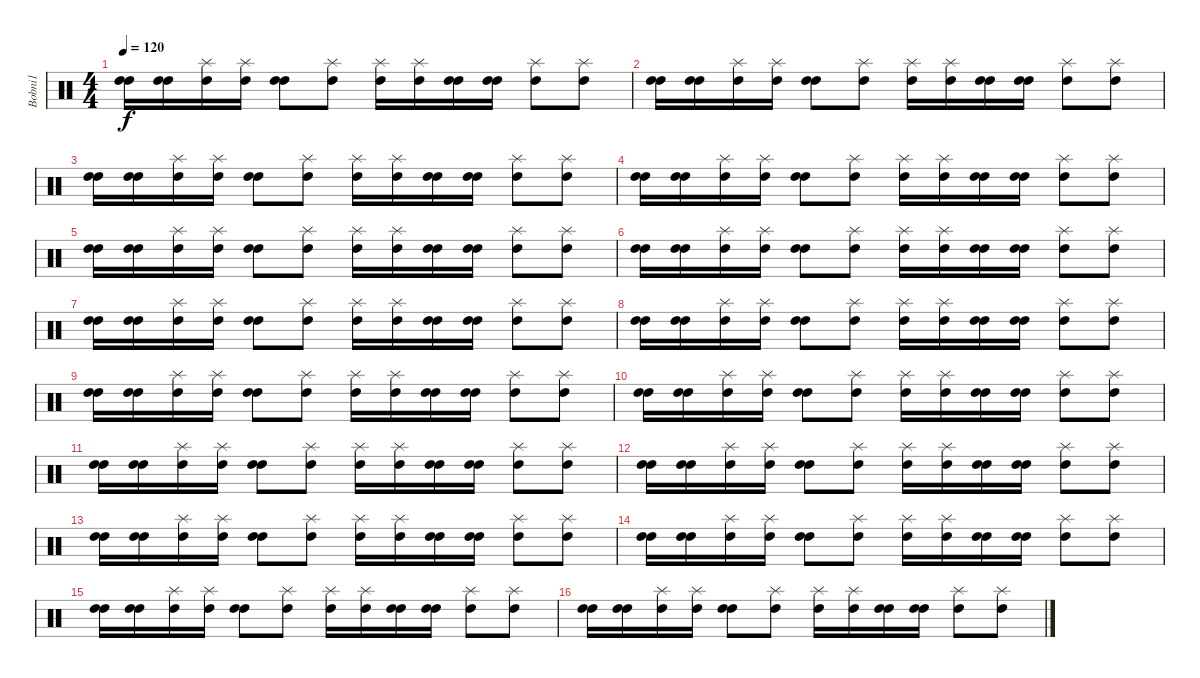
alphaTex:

\track ("Bobni1" "Bobni1") {instrument percussion}
\staff {score}
\articulation defaults
\ts (4 4)
\tempo 120
\clef neutral
\ks c
("High Tom (hit)" "High Tom (hit)").16{dy f} ("High Tom (hit)" "High Tom (hit)").16 ("High Tom (hit)" "Splash (hit)").16 ("High Tom (hit)" "Splash (hit)").16 ("High Tom (hit)" "High Tom (hit)").8 ("High Tom (hit)" "Splash (hit)").8 ("High Tom (hit)" "Splash (hit)").16 ("Splash (hit)" "High Tom (hit)").16 ("High Tom (hit)" "High Tom (hit)").16 ("High Tom (hit)" "High Tom (hit)").16 ("High Tom (hit)" "Splash (hit)").8 ("High Tom (hit)" "Splash (hit)").8 |
("High Tom (hit)" "High Tom (hit)").16 ("High Tom (hit)" "High Tom (hit)").16 ("High Tom (hit)" "Splash (hit)").16 ("High Tom (hit)" "Splash (hit)").16 ("High Tom (hit)" "High Tom (hit)").8 ("High Tom (hit)" "Splash (hit)").8 ("High Tom (hit)" "Splash (hit)").16 ("Splash (hit)" "High Tom (hit)").16 ("High Tom (hit)" "High Tom (hit)").16 ("High Tom (hit)" "High Tom (hit)").16 ("High Tom (hit)" "Splash (hit)").8 ("High Tom (hit)" "Splash (hit)").8 |
("High Tom (hit)" "High Tom (hit)").16 ("High Tom (hit)" "High Tom (hit)").16 ("High Tom (hit)" "Splash (hit)").16 ("High Tom (hit)" "Splash (hit)").16 ("High Tom (hit)" "High Tom (hit)").8 ("High Tom (hit)" "Splash (hit)").8 ("High Tom (hit)" "Splash (hit)").16 ("Splash (hit)" "High Tom (hit)").16 ("High Tom (hit)" "High Tom (hit)").16 ("High Tom (hit)" "High Tom (hit)").16 ("High Tom (hit)" "Splash (hit)").8 ("High Tom (hit)" "Splash (hit)").8 |
("High Tom (hit)" "High Tom (hit)").16 ("High Tom (hit)" "High Tom (hit)").16 ("High Tom (hit)" "Splash (hit)").16 ("High Tom (hit)" "Splash (hit)").16 ("High Tom (hit)" "High Tom (hit)").8 ("High Tom (hit)" "Splash (hit)").8 ("High Tom (hit)" "Splash (hit)").16 ("Splash (hit)" "High Tom (hit)").16 ("High Tom (hit)" "High Tom (hit)").16 ("High Tom (hit)" "High Tom (hit)").16 ("High Tom (hit)" "Splash (hit)").8 ("High Tom (hit)" "Splash (hit)").8 |
("High Tom (hit)" "High Tom (hit)").16 ("High Tom (hit)" "High Tom (hit)").16 ("High Tom (hit)" "Splash (hit)").16 ("High Tom (hit)" "Splash (hit)").16 ("High Tom (hit)" "High Tom (hit)").8 ("High Tom (hit)" "Splash (hit)").8 ("High Tom (hit)" "Splash (hit)").16 ("Splash (hit)" "High Tom (hit)").16 ("High Tom (hit)" "High Tom (hit)").16 ("High Tom (hit)" "High Tom (hit)").16 ("High Tom (hit)" "Splash (hit)").8 ("High Tom (hit)" "Splash (hit)").8 |
("High Tom (hit)" "High Tom (hit)").16 ("High Tom (hit)" "High Tom (hit)").16 ("High Tom (hit)" "Splash (hit)").16 ("High Tom (hit)" "Splash (hit)").16 ("High Tom (hit)" "High Tom (hit)").8 ("High Tom (hit)" "Splash (hit)").8 ("High Tom (hit)" "Splash (hit)").16 ("Splash (hit)" "High Tom (hit)").16 ("High Tom (hit)" "High Tom (hit)").16 ("High Tom (hit)" "High Tom (hit)").16 ("High Tom (hit)" "Splash (hit)").8 ("High Tom (hit)" "Splash (hit)").8 |
("High Tom (hit)" "High Tom (hit)").16 ("High Tom (hit)" "High Tom (hit)").16 ("High Tom (hit)" "Splash (hit)").16 ("High Tom (hit)" "Splash (hit)").16 ("High Tom (hit)" "High Tom (hit)").8 ("High Tom (hit)" "Splash (hit)").8 ("High Tom (hit)" "Splash (hit)").16 ("Splash (hit)" "High Tom (hit)").16 ("High Tom (hit)" "High Tom (hit)").16 ("High Tom (hit)" "High Tom (hit)").16 ("High Tom (hit)" "Splash (hit)").8 ("High Tom (hit)" "Splash (hit)").8 |
("High Tom (hit)" "High Tom (hit)").16 ("High Tom (hit)" "High Tom (hit)").16 ("High Tom (hit)" "Splash (hit)").16 ("High Tom (hit)" "Splash (hit)").16 ("High Tom (hit)" "High Tom (hit)").8 ("High Tom (hit)" "Splash (hit)").8 ("High Tom (hit)" "Splash (hit)").16 ("Splash (hit)" "High Tom (hit)").16 ("High Tom (hit)" "High Tom (hit)").16 ("High Tom (hit)" "High Tom (hit)").16 ("High Tom (hit)" "Splash (hit)").8 ("High Tom (hit)" "Splash (hit)").8 |
("High Tom (hit)" "High Tom (hit)").16 ("High Tom (hit)" "High Tom (hit)").16 ("High Tom (hit)" "Splash (hit)").16 ("High Tom (hit)" "Splash (hit)").16 ("High Tom (hit)" "High Tom (hit)").8 ("High Tom (hit)" "Splash (hit)").8 ("High Tom (hit)" "Splash (hit)").16 ("Splash (hit)" "High Tom (hit)").16 ("High Tom (hit)" "High Tom (hit)").16 ("High Tom (hit)" "High Tom (hit)").16 ("High Tom (hit)" "Splash (hit)").8 ("High Tom (hit)" "Splash (hit)").8 |
("High Tom (hit)" "High Tom (hit)").16 ("High Tom (hit)" "High Tom (hit)").16 ("High Tom (hit)" "Splash (hit)").16 ("High Tom (hit)" "Splash (hit)").16 ("High Tom (hit)" "High Tom (hit)").8 ("High Tom (hit)" "Splash (hit)").8 ("High Tom (hit)" "Splash (hit)").16 ("Splash (hit)" "High Tom (hit)").16 ("High Tom (hit)" "High Tom (hit)").16 ("High Tom (hit)" "High Tom (hit)").16 ("High Tom (hit)" "Splash (hit)").8 ("High Tom (hit)" "Splash (hit)").8 |
("High Tom (hit)" "High Tom (hit)").16 ("High Tom (hit)" "High Tom (hit)").16 ("High Tom (hit)" "Splash (hit)").16 ("High Tom (hit)" "Splash (hit)").16 ("High Tom (hit)" "High Tom (hit)").8 ("High Tom (hit)" "Splash (hit)").8 ("High Tom (hit)" "Splash (hit)").16 ("Splash (hit)" "High Tom (hit)").16 ("High Tom (hit)" "High Tom (hit)").16 ("High Tom (hit)" "High Tom (hit)").16 ("High Tom (hit)" "Splash (hit)").8 ("High Tom (hit)" "Splash (hit)").8 |
("High Tom (hit)" "High Tom (hit)").16 ("High Tom (hit)" "High Tom (hit)").16 ("High Tom (hit)" "Splash (hit)").16 ("High Tom (hit)" "Splash (hit)").16 ("High Tom (hit)" "High Tom (hit)").8 ("High Tom (hit)" "Splash (hit)").8 ("High Tom (hit)" "Splash (hit)").16 ("Splash (hit)" "High Tom (hit)").16 ("High Tom (hit)" "High Tom (hit)").16 ("High Tom (hit)" "High Tom (hit)").16 ("High Tom (hit)" "Splash (hit)").8 ("High Tom (hit)" "Splash (hit)").8 |
("High Tom (hit)" "High Tom (hit)").16 ("High Tom (hit)" "High Tom (hit)").16 ("High Tom (hit)" "Splash (hit)").16 ("High Tom (hit)" "Splash (hit)").16 ("High Tom (hit)" "High Tom (hit)").8 ("High Tom (hit)" "Splash (hit)").8 ("High Tom (hit)" "Splash (hit)").16 ("Splash (hit)" "High Tom (hit)").16 ("High Tom (hit)" "High Tom (hit)").16 ("High Tom (hit)" "High Tom (hit)").16 ("High Tom (hit)" "Splash (hit)").8 ("High Tom (hit)" "Splash (hit)").8 |
("High Tom (hit)" "High Tom (hit)").16 ("High Tom (hit)" "High Tom (hit)").16 ("High Tom (hit)" "Splash (hit)").16 ("High Tom (hit)" "Splash (hit)").16 ("High Tom (hit)" "High Tom (hit)").8 ("High Tom (hit)" "Splash (hit)").8 ("High Tom (hit)" "Splash (hit)").16 ("Splash (hit)" "High Tom (hit)").16 ("High Tom (hit)" "High Tom (hit)").16 ("High Tom (hit)" "High Tom (hit)").16 ("High Tom (hit)" "Splash (hit)").8 ("High Tom (hit)" "Splash (hit)").8 |
("High Tom (hit)" "High Tom (hit)").16 ("High Tom (hit)" "High Tom (hit)").16 ("High Tom (hit)" "Splash (hit)").16 ("High Tom (hit)" "Splash (hit)").16 ("High Tom (hit)" "High Tom (hit)").8 ("High Tom (hit)" "Splash (hit)").8 ("High Tom (hit)" "Splash (hit)").16 ("Splash (hit)" "High Tom (hit)").16 ("High Tom (hit)" "High Tom (hit)").16 ("High Tom (hit)" "High Tom (hit)").16 ("High Tom (hit)" "Splash (hit)").8 ("High Tom (hit)" "Splash (hit)").8 |
("High Tom (hit)" "High Tom (hit)").16 ("High Tom (hit)" "High Tom (hit)").16 ("High Tom (hit)" "Splash (hit)").16 ("High Tom (hit)" "Splash (hit)").16 ("High Tom (hit)" "High Tom (hit)").8 ("High Tom (hit)" "Splash (hit)").8 ("High Tom (hit)" "Splash (hit)").16 ("Splash (hit)" "High Tom (hit)").16 ("High Tom (hit)" "High Tom (hit)").16 ("High Tom (hit)" "High Tom (hit)").16 ("High Tom (hit)" "Splash (hit)").8 ("High Tom (hit)" "Splash (hit)").8
